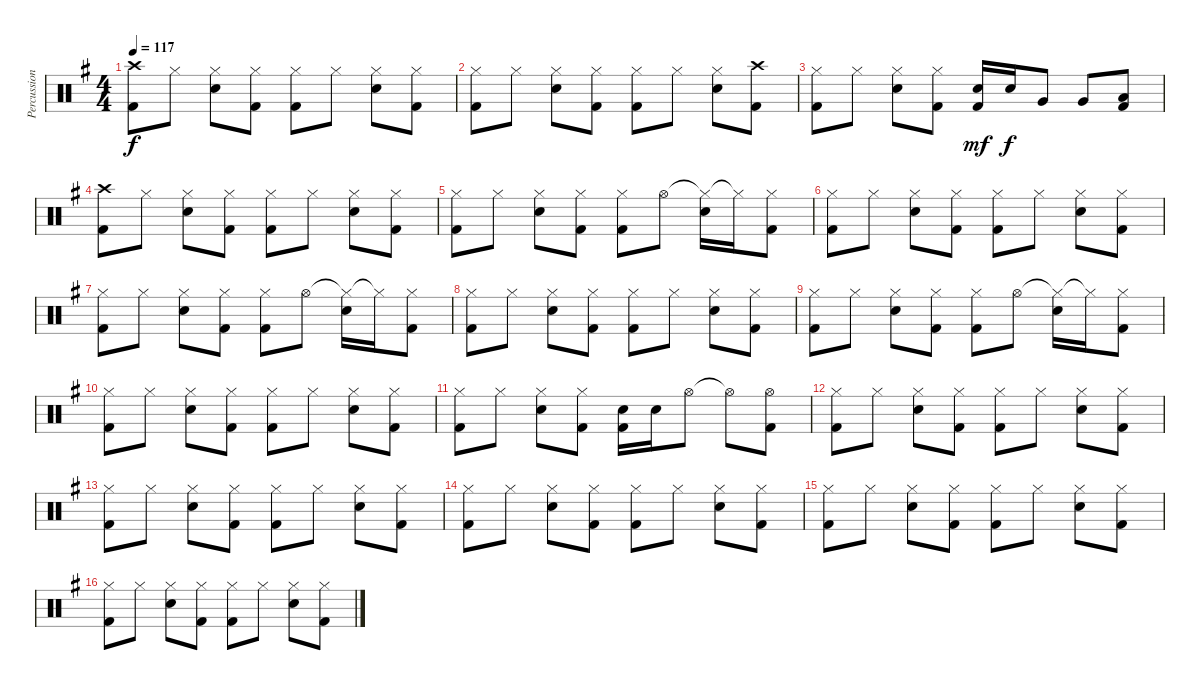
\track ("Percussion" "Percussion") {instrument percussion}
\staff {score}
\articulation defaults
\ts (4 4)
\tempo 117
\clef neutral
\ks g
("Crash high (hit)" "Kick (hit) 2").8{dy f} "Hi-Hat (closed)".8 ("Hi-Hat (closed)" "Electric Snare (hit)").8 ("Hi-Hat (closed)" "Kick (hit) 2").8 ("Hi-Hat (closed)" "Kick (hit) 2").8 "Hi-Hat (closed)".8 ("Hi-Hat (closed)" "Electric Snare (hit)").8 ("Hi-Hat (closed)" "Kick (hit) 2").8 |
("Hi-Hat (closed)" "Kick (hit) 2").8 "Hi-Hat (closed)".8 ("Hi-Hat (closed)" "Electric Snare (hit)").8 ("Hi-Hat (closed)" "Kick (hit) 2").8 ("Hi-Hat (closed)" "Kick (hit) 2").8 "Hi-Hat (closed)".8 ("Hi-Hat (closed)" "Electric Snare (hit)").8 ("Crash high (hit)" "Kick (hit) 2").8 |
("Hi-Hat (closed)" "Kick (hit) 2").8 "Hi-Hat (closed)".8 ("Hi-Hat (closed)" "Electric Snare (hit)").8 ("Hi-Hat (closed)" "Kick (hit) 2").8 ("Electric Snare (hit)" "Kick (hit) 2").16{dy mf} "Electric Snare (hit)".16{dy f} "Very Low Tom (hit)".8 "Very Low Tom (hit)".8 ("Low Floor Tom (hit)" "Kick (hit) 2").8 |
("Crash high (hit)" "Kick (hit) 2").8 "Hi-Hat (closed)".8 ("Hi-Hat (closed)" "Electric Snare (hit)").8 ("Hi-Hat (closed)" "Kick (hit) 2").8 ("Hi-Hat (closed)" "Kick (hit) 2").8 "Hi-Hat (closed)".8 ("Hi-Hat (closed)" "Electric Snare (hit)").8 ("Hi-Hat (closed)" "Kick (hit) 2").8 |
("Hi-Hat (closed)" "Kick (hit) 2").8 "Hi-Hat (closed)".8 ("Hi-Hat (closed)" "Electric Snare (hit)").8 ("Hi-Hat (closed)" "Kick (hit) 2").8 ("Hi-Hat (closed)" "Kick (hit) 2").8 "Hi-Hat (open)".8 ("Hi-Hat (closed)"{t} "Electric Snare (hit)").16 "Hi-Hat (closed)"{t}.16 ("Hi-Hat (closed)" "Kick (hit) 2").8 |
("Hi-Hat (closed)" "Kick (hit) 2").8 "Hi-Hat (closed)".8 ("Hi-Hat (closed)" "Electric Snare (hit)").8 ("Hi-Hat (closed)" "Kick (hit) 2").8 ("Hi-Hat (closed)" "Kick (hit) 2").8 "Hi-Hat (closed)".8 ("Hi-Hat (closed)" "Electric Snare (hit)").8 ("Hi-Hat (closed)" "Kick (hit) 2").8 |
("Hi-Hat (closed)" "Kick (hit) 2").8 "Hi-Hat (closed)".8 ("Hi-Hat (closed)" "Electric Snare (hit)").8 ("Hi-Hat (closed)" "Kick (hit) 2").8 ("Hi-Hat (closed)" "Kick (hit) 2").8 "Hi-Hat (open)".8 ("Hi-Hat (closed)"{t} "Electric Snare (hit)").16 "Hi-Hat (closed)"{t}.16 ("Hi-Hat (closed)" "Kick (hit) 2").8 |
("Hi-Hat (closed)" "Kick (hit) 2").8 "Hi-Hat (closed)".8 ("Hi-Hat (closed)" "Electric Snare (hit)").8 ("Hi-Hat (closed)" "Kick (hit) 2").8 ("Hi-Hat (closed)" "Kick (hit) 2").8 "Hi-Hat (closed)".8 ("Hi-Hat (closed)" "Electric Snare (hit)").8 ("Hi-Hat (closed)" "Kick (hit) 2").8 |
("Hi-Hat (closed)" "Kick (hit) 2").8 "Hi-Hat (closed)".8 ("Hi-Hat (closed)" "Electric Snare (hit)").8 ("Hi-Hat (closed)" "Kick (hit) 2").8 ("Hi-Hat (closed)" "Kick (hit) 2").8 "Hi-Hat (open)".8 ("Hi-Hat (closed)"{t} "Electric Snare (hit)").16 "Hi-Hat (closed)"{t}.16 ("Hi-Hat (closed)" "Kick (hit) 2").8 |
("Hi-Hat (closed)" "Kick (hit) 2").8 "Hi-Hat (closed)".8 ("Hi-Hat (closed)" "Electric Snare (hit)").8 ("Hi-Hat (closed)" "Kick (hit) 2").8 ("Hi-Hat (closed)" "Kick (hit) 2").8 "Hi-Hat (closed)".8 ("Hi-Hat (closed)" "Electric Snare (hit)").8 ("Hi-Hat (closed)" "Kick (hit) 2").8 |
("Hi-Hat (closed)" "Kick (hit) 2").8 "Hi-Hat (closed)".8 ("Hi-Hat (closed)" "Electric Snare (hit)").8 ("Hi-Hat (closed)" "Kick (hit) 2").8 ("Electric Snare (hit)" "Kick (hit) 2").16 "Electric Snare (hit)".16 "Hi-Hat (open)".8 "Hi-Hat (open)"{t}.8 ("Hi-Hat (open)" "Kick (hit) 2").8 |
("Hi-Hat (closed)" "Kick (hit) 2").8 "Hi-Hat (closed)".8 ("Hi-Hat (closed)" "Electric Snare (hit)").8 ("Hi-Hat (closed)" "Kick (hit) 2").8 ("Hi-Hat (closed)" "Kick (hit) 2").8 "Hi-Hat (closed)".8 ("Hi-Hat (closed)" "Electric Snare (hit)").8 ("Hi-Hat (closed)" "Kick (hit) 2").8 |
("Hi-Hat (closed)" "Kick (hit) 2").8 "Hi-Hat (closed)".8 ("Hi-Hat (closed)" "Electric Snare (hit)").8 ("Hi-Hat (closed)" "Kick (hit) 2").8 ("Hi-Hat (closed)" "Kick (hit) 2").8 "Hi-Hat (closed)".8 ("Hi-Hat (closed)" "Electric Snare (hit)").8 ("Hi-Hat (closed)" "Kick (hit) 2").8 |
("Hi-Hat (closed)" "Kick (hit) 2").8 "Hi-Hat (closed)".8 ("Hi-Hat (closed)" "Electric Snare (hit)").8 ("Hi-Hat (closed)" "Kick (hit) 2").8 ("Hi-Hat (closed)" "Kick (hit) 2").8 "Hi-Hat (closed)".8 ("Hi-Hat (closed)" "Electric Snare (hit)").8 ("Hi-Hat (closed)" "Kick (hit) 2").8 |
("Hi-Hat (closed)" "Kick (hit) 2").8 "Hi-Hat (closed)".8 ("Hi-Hat (closed)" "Electric Snare (hit)").8 ("Hi-Hat (closed)" "Kick (hit) 2").8 ("Hi-Hat (closed)" "Kick (hit) 2").8 "Hi-Hat (closed)".8 ("Hi-Hat (closed)" "Electric Snare (hit)").8 ("Hi-Hat (closed)" "Kick (hit) 2").8 |
("Hi-Hat (closed)" "Kick (hit) 2").8 "Hi-Hat (closed)".8 ("Hi-Hat (closed)" "Electric Snare (hit)").8 ("Hi-Hat (closed)" "Kick (hit) 2").8 ("Hi-Hat (closed)" "Kick (hit) 2").8 "Hi-Hat (closed)".8 ("Hi-Hat (closed)" "Electric Snare (hit)").8 ("Hi-Hat (closed)" "Kick (hit) 2").8
